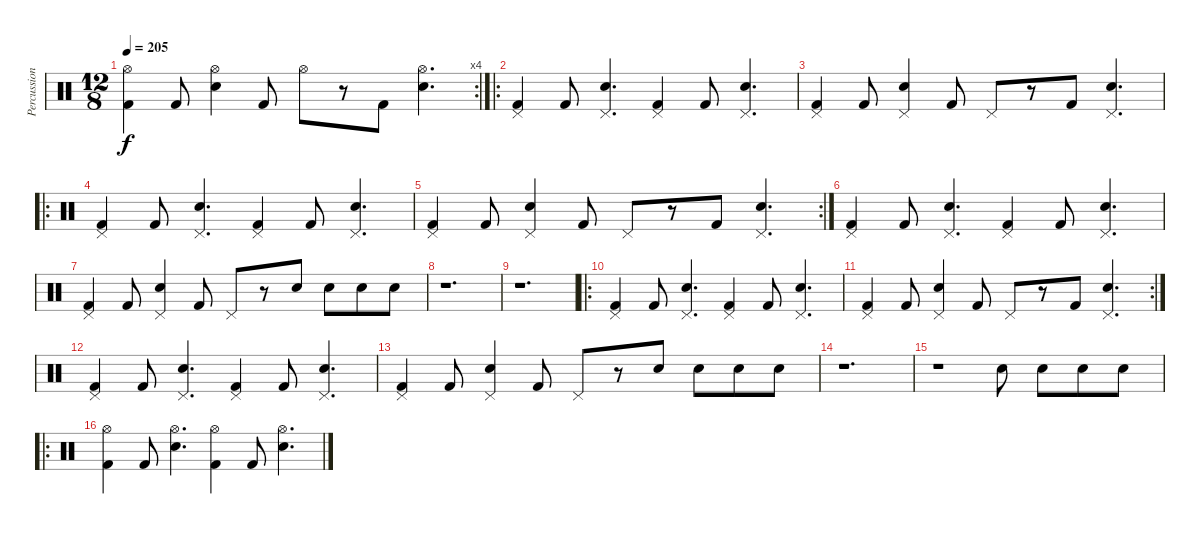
\track ("Percussion" "Percussion") {instrument percussion}
\staff {score}
\articulation defaults
\rc 4
\ts (12 8)
\tempo 205
\clef neutral
\ks c
("Hi-Hat (open)" "Kick (hit) 2").4{dy f} "Kick (hit) 2".8 ("Hi-Hat (open)" "Snare (hit) 2").4 "Kick (hit) 2".8 "Hi-Hat (open)".8 r.8 "Kick (hit) 2".8 ("Hi-Hat (open)" "Snare (hit) 2").4{d} |
\ro
("Pedal Hi-Hat (hit)" "Kick (hit) 2").4 "Kick (hit) 2".8 ("Pedal Hi-Hat (hit)" "Snare (hit) 2").4{d} ("Pedal Hi-Hat (hit)" "Kick (hit) 2").4 "Kick (hit) 2".8 ("Pedal Hi-Hat (hit)" "Snare (hit) 2").4{d} |
("Pedal Hi-Hat (hit)" "Kick (hit) 2").4 "Kick (hit) 2".8 ("Pedal Hi-Hat (hit)" "Snare (hit) 2").4 "Kick (hit) 2".8 "Pedal Hi-Hat (hit)".8 r.8 "Kick (hit) 2".8 ("Pedal Hi-Hat (hit)" "Snare (hit) 2").4{d} |
\ro
("Pedal Hi-Hat (hit)" "Kick (hit) 2").4 "Kick (hit) 2".8 ("Pedal Hi-Hat (hit)" "Snare (hit) 2").4{d} ("Pedal Hi-Hat (hit)" "Kick (hit) 2").4 "Kick (hit) 2".8 ("Pedal Hi-Hat (hit)" "Snare (hit) 2").4{d} |
\rc 2
("Pedal Hi-Hat (hit)" "Kick (hit) 2").4 "Kick (hit) 2".8 ("Pedal Hi-Hat (hit)" "Snare (hit) 2").4 "Kick (hit) 2".8 "Pedal Hi-Hat (hit)".8 r.8 "Kick (hit) 2".8 ("Pedal Hi-Hat (hit)" "Snare (hit) 2").4{d} |
("Pedal Hi-Hat (hit)" "Kick (hit) 2").4 "Kick (hit) 2".8 ("Pedal Hi-Hat (hit)" "Snare (hit) 2").4{d} ("Pedal Hi-Hat (hit)" "Kick (hit) 2").4 "Kick (hit) 2".8 ("Pedal Hi-Hat (hit)" "Snare (hit) 2").4{d} |
("Pedal Hi-Hat (hit)" "Kick (hit) 2").4 "Kick (hit) 2".8 ("Pedal Hi-Hat (hit)" "Snare (hit) 2").4 "Kick (hit) 2".8 "Pedal Hi-Hat (hit)".8 r.8 "Snare (hit) 2".8 "Snare (hit) 2".8 "Snare (hit) 2".8 "Snare (hit) 2".8 |
r.1{d} |
r.1{d} |
\ro
("Pedal Hi-Hat (hit)" "Kick (hit) 2").4 "Kick (hit) 2".8 ("Pedal Hi-Hat (hit)" "Snare (hit) 2").4{d} ("Pedal Hi-Hat (hit)" "Kick (hit) 2").4 "Kick (hit) 2".8 ("Pedal Hi-Hat (hit)" "Snare (hit) 2").4{d} |
\rc 2
("Pedal Hi-Hat (hit)" "Kick (hit) 2").4 "Kick (hit) 2".8 ("Pedal Hi-Hat (hit)" "Snare (hit) 2").4 "Kick (hit) 2".8 "Pedal Hi-Hat (hit)".8 r.8 "Kick (hit) 2".8 ("Pedal Hi-Hat (hit)" "Snare (hit) 2").4{d} |
("Pedal Hi-Hat (hit)" "Kick (hit) 2").4 "Kick (hit) 2".8 ("Pedal Hi-Hat (hit)" "Snare (hit) 2").4{d} ("Pedal Hi-Hat (hit)" "Kick (hit) 2").4 "Kick (hit) 2".8 ("Pedal Hi-Hat (hit)" "Snare (hit) 2").4{d} |
("Pedal Hi-Hat (hit)" "Kick (hit) 2").4 "Kick (hit) 2".8 ("Pedal Hi-Hat (hit)" "Snare (hit) 2").4 "Kick (hit) 2".8 "Pedal Hi-Hat (hit)".8 r.8 "Snare (hit) 2".8 "Snare (hit) 2".8 "Snare (hit) 2".8 "Snare (hit) 2".8 |
r.1{d} |
r.1 "Snare (hit) 2".8 "Snare (hit) 2".8 "Snare (hit) 2".8 "Snare (hit) 2".8 |
\ro
("Hi-Hat (open)" "Kick (hit) 2").4 "Kick (hit) 2".8 ("Hi-Hat (open)" "Snare (hit) 2").4{d} ("Hi-Hat (open)" "Kick (hit) 2").4 "Kick (hit) 2".8 ("Hi-Hat (open)" "Snare (hit) 2").4{d}
